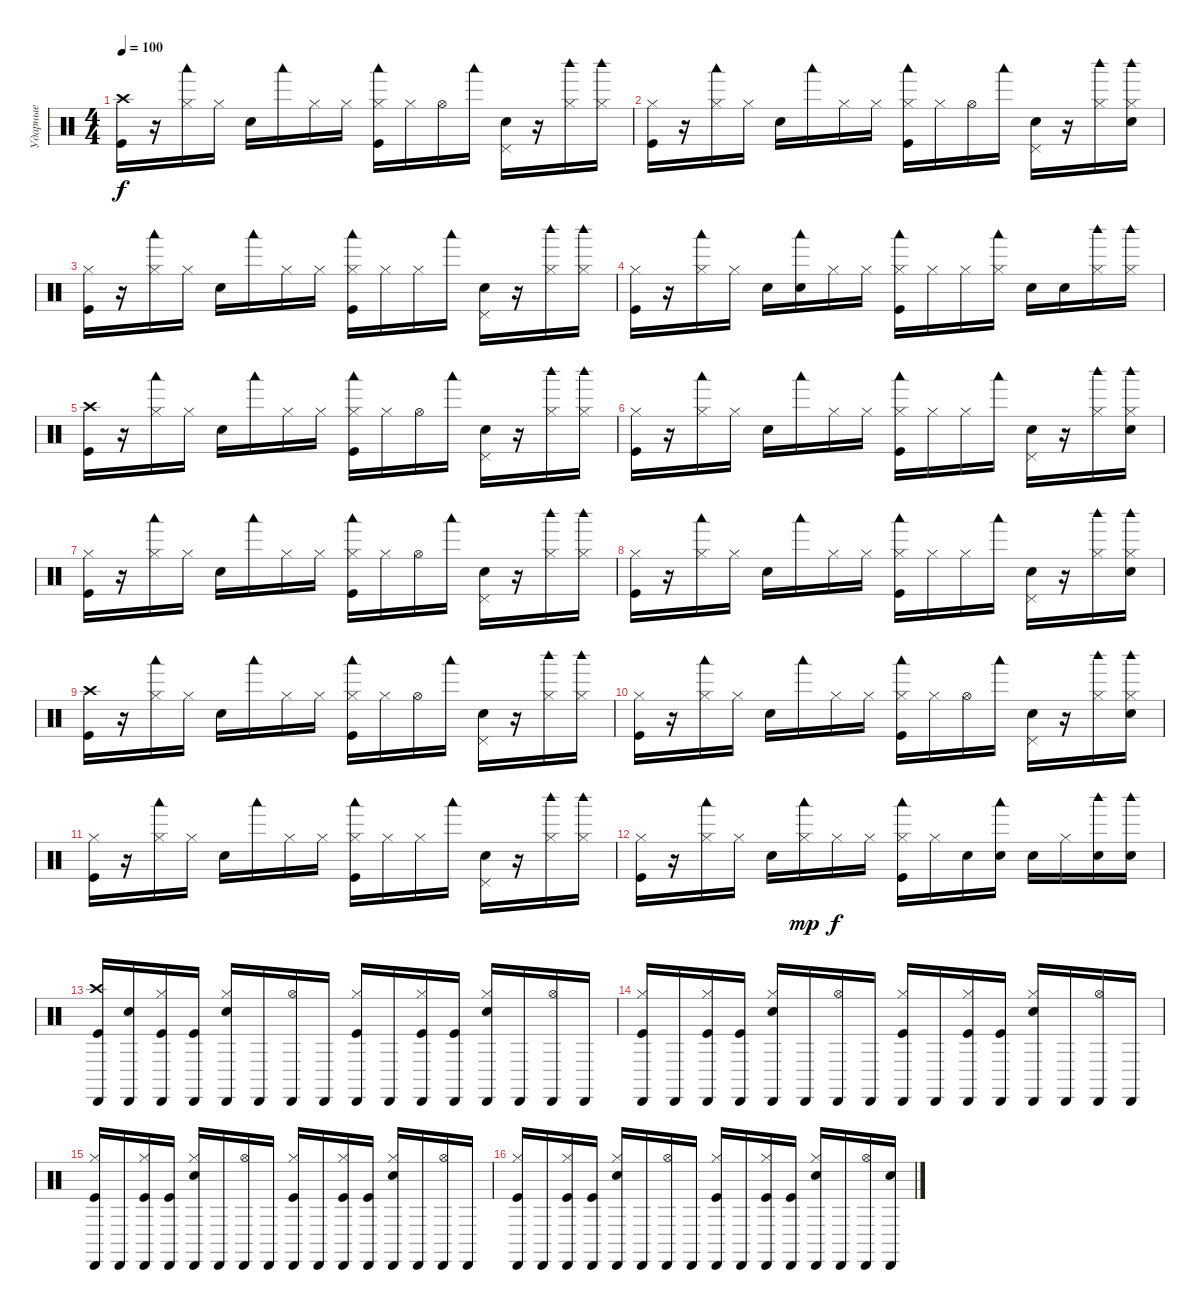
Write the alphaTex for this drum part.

\track ("Ударные" "Ударные") {instrument percussion}
\staff {score}
\articulation defaults
\ts (4 4)
\tempo 100
\clef neutral
\ks c
("Kick (hit)" "Crash high (hit)").16{dy f} r.16 ("Hi-Hat (closed)" "Woodblock low (hit)").16 "Hi-Hat (closed)".16 "Snare (hit) 2".16 "Woodblock low (hit)".16 "Hi-Hat (closed)".16 "Hi-Hat (closed)".16 ("Kick (hit)" "Hi-Hat (closed)" "Woodblock low (hit)").16 "Hi-Hat (closed)".16 "Hi-Hat (open)".16 "Woodblock low (hit)".16 ("Snare (hit) 2" "Pedal Hi-Hat (hit)").16 r.16 ("Hi-Hat (closed)" "Woodblock high (hit)").16 ("Hi-Hat (closed)" "Woodblock high (hit)").16 |
("Kick (hit)" "Hi-Hat (closed)").16 r.16 ("Hi-Hat (closed)" "Woodblock low (hit)").16 "Hi-Hat (closed)".16 "Snare (hit) 2".16 "Woodblock low (hit)".16 "Hi-Hat (closed)".16 "Hi-Hat (closed)".16 ("Kick (hit)" "Hi-Hat (closed)" "Woodblock low (hit)").16 "Hi-Hat (closed)".16 "Hi-Hat (open)".16 "Woodblock low (hit)".16 ("Snare (hit) 2" "Pedal Hi-Hat (hit)").16 r.16 ("Hi-Hat (closed)" "Woodblock high (hit)").16 ("Snare (hit) 2" "Hi-Hat (closed)" "Woodblock high (hit)").16 |
("Kick (hit)" "Hi-Hat (closed)").16 r.16 ("Hi-Hat (closed)" "Woodblock low (hit)").16 "Hi-Hat (closed)".16 "Snare (hit) 2".16 "Woodblock low (hit)".16 "Hi-Hat (closed)".16 "Hi-Hat (closed)".16 ("Kick (hit)" "Hi-Hat (closed)" "Woodblock low (hit)").16 "Hi-Hat (closed)".16 "Hi-Hat (closed)".16 "Woodblock low (hit)".16 ("Snare (hit) 2" "Pedal Hi-Hat (hit)").16 r.16 ("Hi-Hat (closed)" "Woodblock high (hit)").16 ("Hi-Hat (closed)" "Woodblock high (hit)").16 |
("Kick (hit)" "Hi-Hat (closed)").16 r.16 ("Hi-Hat (closed)" "Woodblock low (hit)").16 "Hi-Hat (closed)".16 "Snare (hit) 2".16 ("Snare (hit) 2" "Woodblock low (hit)").16 "Hi-Hat (closed)".16 "Hi-Hat (closed)".16 ("Kick (hit)" "Hi-Hat (closed)" "Woodblock low (hit)").16 "Hi-Hat (closed)".16 "Hi-Hat (closed)".16 ("Hi-Hat (closed)" "Woodblock low (hit)").16 "Snare (hit) 2".16 "Snare (hit) 2".16 ("Hi-Hat (closed)" "Woodblock high (hit)").16 ("Hi-Hat (closed)" "Woodblock high (hit)").16 |
("Kick (hit)" "Crash high (hit)").16 r.16 ("Hi-Hat (closed)" "Woodblock low (hit)").16 "Hi-Hat (closed)".16 "Snare (hit) 2".16 "Woodblock low (hit)".16 "Hi-Hat (closed)".16 "Hi-Hat (closed)".16 ("Kick (hit)" "Hi-Hat (closed)" "Woodblock low (hit)").16 "Hi-Hat (closed)".16 "Hi-Hat (open)".16 "Woodblock low (hit)".16 ("Snare (hit) 2" "Pedal Hi-Hat (hit)").16 r.16 ("Hi-Hat (closed)" "Woodblock high (hit)").16 ("Hi-Hat (closed)" "Woodblock high (hit)").16 |
("Kick (hit)" "Hi-Hat (closed)").16 r.16 ("Hi-Hat (closed)" "Woodblock low (hit)").16 "Hi-Hat (closed)".16 "Snare (hit) 2".16 "Woodblock low (hit)".16 "Hi-Hat (closed)".16 "Hi-Hat (closed)".16 ("Kick (hit)" "Hi-Hat (closed)" "Woodblock low (hit)").16 "Hi-Hat (closed)".16 "Hi-Hat (closed)".16 "Woodblock low (hit)".16 ("Snare (hit) 2" "Pedal Hi-Hat (hit)").16 r.16 ("Hi-Hat (closed)" "Woodblock high (hit)").16 ("Snare (hit) 2" "Hi-Hat (closed)" "Woodblock high (hit)").16 |
("Kick (hit)" "Hi-Hat (closed)").16 r.16 ("Hi-Hat (closed)" "Woodblock low (hit)").16 "Hi-Hat (closed)".16 "Snare (hit) 2".16 "Woodblock low (hit)".16 "Hi-Hat (closed)".16 "Hi-Hat (closed)".16 ("Kick (hit)" "Hi-Hat (closed)" "Woodblock low (hit)").16 "Hi-Hat (closed)".16 "Hi-Hat (open)".16 "Woodblock low (hit)".16 ("Snare (hit) 2" "Pedal Hi-Hat (hit)").16 r.16 ("Hi-Hat (closed)" "Woodblock high (hit)").16 ("Hi-Hat (closed)" "Woodblock high (hit)").16 |
("Kick (hit)" "Hi-Hat (closed)").16 r.16 ("Hi-Hat (closed)" "Woodblock low (hit)").16 "Hi-Hat (closed)".16 "Snare (hit) 2".16 "Woodblock low (hit)".16 "Hi-Hat (closed)".16 "Hi-Hat (closed)".16 ("Kick (hit)" "Hi-Hat (closed)" "Woodblock low (hit)").16 "Hi-Hat (closed)".16 "Hi-Hat (closed)".16 "Woodblock low (hit)".16 ("Snare (hit) 2" "Pedal Hi-Hat (hit)").16 r.16 ("Hi-Hat (closed)" "Woodblock high (hit)").16 ("Snare (hit) 2" "Hi-Hat (closed)" "Woodblock high (hit)").16 |
("Kick (hit)" "Crash high (hit)").16 r.16 ("Hi-Hat (closed)" "Woodblock low (hit)").16 "Hi-Hat (closed)".16 "Snare (hit) 2".16 "Woodblock low (hit)".16 "Hi-Hat (closed)".16 "Hi-Hat (closed)".16 ("Kick (hit)" "Hi-Hat (closed)" "Woodblock low (hit)").16 "Hi-Hat (closed)".16 "Hi-Hat (open)".16 "Woodblock low (hit)".16 ("Snare (hit) 2" "Pedal Hi-Hat (hit)").16 r.16 ("Hi-Hat (closed)" "Woodblock high (hit)").16 ("Hi-Hat (closed)" "Woodblock high (hit)").16 |
("Kick (hit)" "Hi-Hat (closed)").16 r.16 ("Hi-Hat (closed)" "Woodblock low (hit)").16 "Hi-Hat (closed)".16 "Snare (hit) 2".16 "Woodblock low (hit)".16 "Hi-Hat (closed)".16 "Hi-Hat (closed)".16 ("Kick (hit)" "Hi-Hat (closed)" "Woodblock low (hit)").16 "Hi-Hat (closed)".16 "Hi-Hat (open)".16 "Woodblock low (hit)".16 ("Snare (hit) 2" "Pedal Hi-Hat (hit)").16 r.16 ("Hi-Hat (closed)" "Woodblock high (hit)").16 ("Snare (hit) 2" "Hi-Hat (closed)" "Woodblock high (hit)").16 |
("Kick (hit)" "Hi-Hat (closed)").16 r.16 ("Hi-Hat (closed)" "Woodblock low (hit)").16 "Hi-Hat (closed)".16 "Snare (hit) 2".16 "Woodblock low (hit)".16 "Hi-Hat (closed)".16 "Hi-Hat (closed)".16 ("Kick (hit)" "Hi-Hat (closed)" "Woodblock low (hit)").16 "Hi-Hat (closed)".16 "Hi-Hat (closed)".16 "Woodblock low (hit)".16 ("Snare (hit) 2" "Pedal Hi-Hat (hit)").16 r.16 ("Hi-Hat (closed)" "Woodblock high (hit)").16 ("Hi-Hat (closed)" "Woodblock high (hit)").16 |
("Kick (hit)" "Hi-Hat (closed)").16 r.16 ("Hi-Hat (closed)" "Woodblock low (hit)").16 "Hi-Hat (closed)".16 "Snare (hit) 2".16 ("Hi-Hat (closed)" "Woodblock low (hit)").16{dy mp} "Hi-Hat (closed)".16{dy f} "Hi-Hat (closed)".16 ("Kick (hit)" "Hi-Hat (closed)" "Woodblock low (hit)").16 "Hi-Hat (closed)".16 "Snare (hit) 2".16 ("Snare (hit) 2" "Woodblock low (hit)").16 "Snare (hit) 2".16 "Hi-Hat (closed)".16 ("Snare (hit) 2" "Woodblock high (hit)").16 ("Snare (hit) 2" "Woodblock high (hit)").16 |
("Crash high (hit)" "Kick (hit)" "Cabasa (hit)").16 ("Snare (hit) 2" "Cabasa (hit)").16 ("Hi-Hat (closed)" "Kick (hit)" "Cabasa (hit)").16 ("Kick (hit)" "Cabasa (hit)").16 ("Hi-Hat (closed)" "Snare (hit) 2" "Cabasa (hit)").16 "Cabasa (hit)".16 ("Hi-Hat (open)" "Cabasa (hit)").16 "Cabasa (hit)".16 ("Hi-Hat (closed)" "Kick (hit)" "Cabasa (hit)").16 "Cabasa (hit)".16 ("Hi-Hat (closed)" "Kick (hit)" "Cabasa (hit)").16 ("Kick (hit)" "Cabasa (hit)").16 ("Hi-Hat (closed)" "Snare (hit) 2" "Cabasa (hit)").16 "Cabasa (hit)".16 ("Hi-Hat (open)" "Cabasa (hit)").16 "Cabasa (hit)".16 |
("Hi-Hat (closed)" "Kick (hit)" "Cabasa (hit)").16 "Cabasa (hit)".16 ("Hi-Hat (closed)" "Kick (hit)" "Cabasa (hit)").16 ("Kick (hit)" "Cabasa (hit)").16 ("Hi-Hat (closed)" "Snare (hit) 2" "Cabasa (hit)").16 "Cabasa (hit)".16 ("Hi-Hat (open)" "Cabasa (hit)").16 "Cabasa (hit)".16 ("Hi-Hat (closed)" "Kick (hit)" "Cabasa (hit)").16 "Cabasa (hit)".16 ("Hi-Hat (closed)" "Kick (hit)" "Cabasa (hit)").16 ("Kick (hit)" "Cabasa (hit)").16 ("Hi-Hat (closed)" "Snare (hit) 2" "Cabasa (hit)").16 "Cabasa (hit)".16 ("Hi-Hat (open)" "Cabasa (hit)").16 "Cabasa (hit)".16 |
("Hi-Hat (closed)" "Kick (hit)" "Cabasa (hit)").16 "Cabasa (hit)".16 ("Hi-Hat (closed)" "Kick (hit)" "Cabasa (hit)").16 ("Kick (hit)" "Cabasa (hit)").16 ("Hi-Hat (closed)" "Snare (hit) 2" "Cabasa (hit)").16 "Cabasa (hit)".16 ("Hi-Hat (open)" "Cabasa (hit)").16 "Cabasa (hit)".16 ("Hi-Hat (closed)" "Kick (hit)" "Cabasa (hit)").16 "Cabasa (hit)".16 ("Hi-Hat (closed)" "Kick (hit)" "Cabasa (hit)").16 ("Kick (hit)" "Cabasa (hit)").16 ("Hi-Hat (closed)" "Snare (hit) 2" "Cabasa (hit)").16 "Cabasa (hit)".16 ("Hi-Hat (open)" "Cabasa (hit)").16 "Cabasa (hit)".16 |
("Hi-Hat (closed)" "Kick (hit)" "Cabasa (hit)").16 "Cabasa (hit)".16 ("Hi-Hat (closed)" "Kick (hit)" "Cabasa (hit)").16 ("Kick (hit)" "Cabasa (hit)").16 ("Hi-Hat (closed)" "Snare (hit) 2" "Cabasa (hit)").16 "Cabasa (hit)".16 ("Hi-Hat (open)" "Cabasa (hit)").16 "Cabasa (hit)".16 ("Hi-Hat (closed)" "Kick (hit)" "Cabasa (hit)").16 "Cabasa (hit)".16 ("Hi-Hat (closed)" "Kick (hit)" "Cabasa (hit)").16 ("Kick (hit)" "Cabasa (hit)").16 ("Hi-Hat (closed)" "Snare (hit) 2" "Cabasa (hit)").16 "Cabasa (hit)".16 ("Hi-Hat (open)" "Cabasa (hit)").16 ("Snare (hit) 2" "Cabasa (hit)").16
